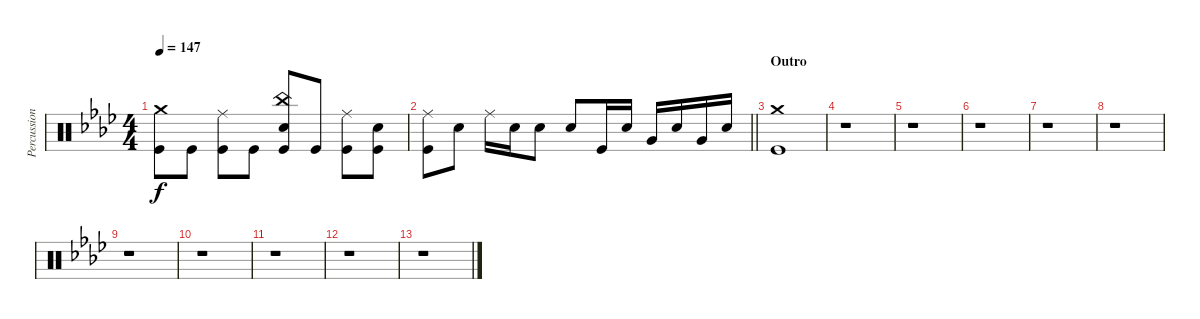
\track ("Percussion" "Percussion") {instrument percussion}
\staff {score}
\articulation defaults
\ts (4 4)
\tempo 147
\clef neutral
\ks ab
("Crash medium (hit)" "Kick (hit)").8{dy f} "Kick (hit)".8 ("Ride (middle)" "Kick (hit)").8 "Kick (hit)".8 ("China (hit)" "Electric Snare (hit)" "Kick (hit)").8 "Kick (hit)".8 ("Ride (middle)" "Kick (hit)").8 ("Electric Snare (hit)" "Kick (hit)").8 |
\barLineRight lightlight
("Ride (middle)" "Kick (hit)").8 "Electric Snare (hit)".8 "Ride (middle)".16 "Electric Snare (hit)".16 "Electric Snare (hit)".8 "Electric Snare (hit)".8 "Kick (hit)".16 "Electric Snare (hit)".16 "Very Low Tom (hit)".16 "Electric Snare (hit)".16 "Very Low Tom (hit)".16 "Electric Snare (hit)".16 |
\section ("" "Outro")
("Crash medium (hit)" "Kick (hit)").1 |
r.1 |
r.1 |
r.1 |
r.1 |
r.1 |
r.1 |
r.1 |
r.1 |
r.1 |
r.1
